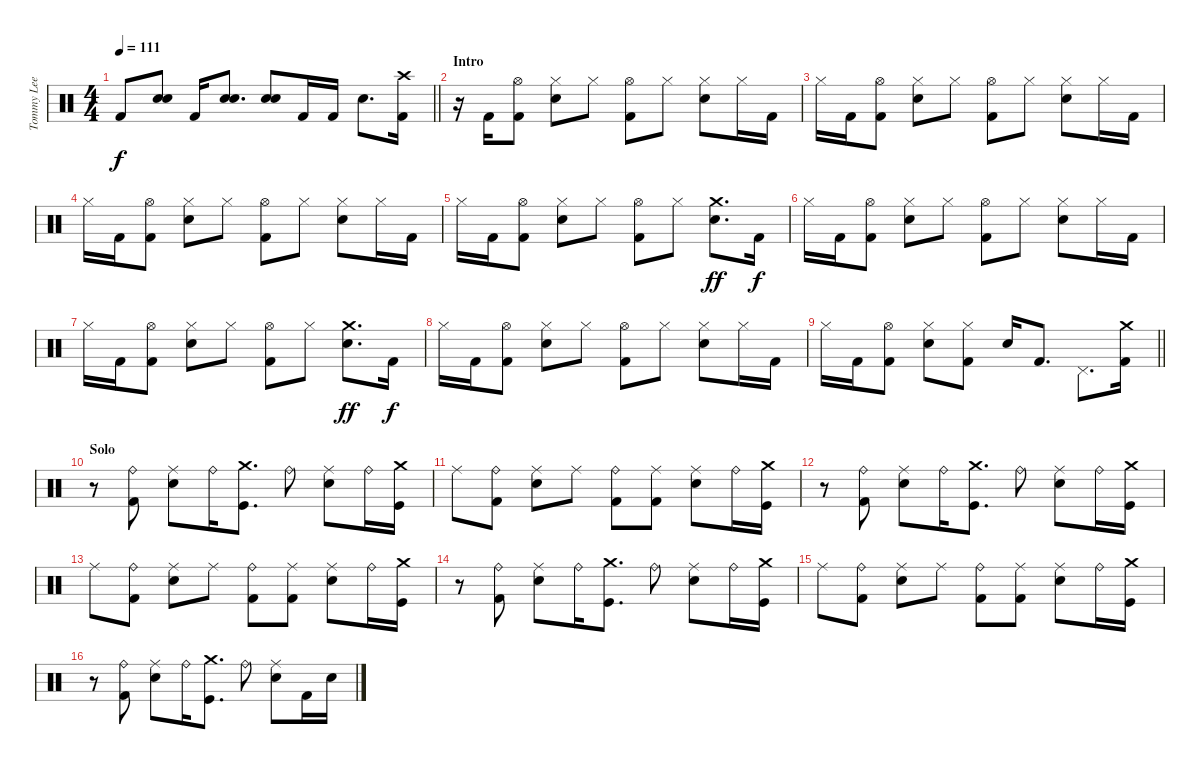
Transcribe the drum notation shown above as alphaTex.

\track ("Tommy Lee" "Tommy Lee") {instrument percussion}
\staff {score}
\articulation defaults
\ts (4 4)
\tempo 111
\clef neutral
\barLineRight lightlight
\ks c "Kick (hit) 2".8{dy f}
("Snare (hit) 2" "Snare (hit) 2").8 "Kick (hit) 2".16 ("Snare (hit) 2" "Snare (hit) 2").8{d} ("Snare (hit) 2" "Snare (hit) 2").8 "Kick (hit) 2".16 "Kick (hit) 2".16 "Snare (hit) 2".8{d} ("Crash high (hit)" "Kick (hit) 2").16 |
\section ("" "Intro")
r.16 "Kick (hit) 2".16 ("Hi-Hat (open)" "Kick (hit) 2").8 ("Hi-Hat (closed)" "Snare (hit) 2").8 "Hi-Hat (closed)".8 ("Hi-Hat (open)" "Kick (hit) 2").8 "Hi-Hat (closed)".8 ("Hi-Hat (closed)" "Snare (hit) 2").8 "Hi-Hat (closed)".16 "Kick (hit) 2".16 |
"Hi-Hat (closed)".16 "Kick (hit) 2".16 ("Hi-Hat (open)" "Kick (hit) 2").8 ("Hi-Hat (closed)" "Snare (hit) 2").8 "Hi-Hat (closed)".8 ("Hi-Hat (open)" "Kick (hit) 2").8 "Hi-Hat (closed)".8 ("Hi-Hat (closed)" "Snare (hit) 2").8 "Hi-Hat (closed)".16 "Kick (hit) 2".16 |
"Hi-Hat (closed)".16 "Kick (hit) 2".16 ("Hi-Hat (open)" "Kick (hit) 2").8 ("Hi-Hat (closed)" "Snare (hit) 2").8 "Hi-Hat (closed)".8 ("Hi-Hat (open)" "Kick (hit) 2").8 "Hi-Hat (closed)".8 ("Hi-Hat (closed)" "Snare (hit) 2").8 "Hi-Hat (closed)".16 "Kick (hit) 2".16 |
"Hi-Hat (closed)".16 "Kick (hit) 2".16 ("Hi-Hat (open)" "Kick (hit) 2").8 ("Hi-Hat (closed)" "Snare (hit) 2").8 "Hi-Hat (closed)".8 ("Hi-Hat (open)" "Kick (hit) 2").8 "Hi-Hat (closed)".8 ("Crash medium (hit)" "Snare (hit) 2").8{d dy ff} "Kick (hit) 2".16{dy f} |
"Hi-Hat (closed)".16 "Kick (hit) 2".16 ("Hi-Hat (open)" "Kick (hit) 2").8 ("Hi-Hat (closed)" "Snare (hit) 2").8 "Hi-Hat (closed)".8 ("Hi-Hat (open)" "Kick (hit) 2").8 "Hi-Hat (closed)".8 ("Hi-Hat (closed)" "Snare (hit) 2").8 "Hi-Hat (closed)".16 "Kick (hit) 2".16 |
"Hi-Hat (closed)".16 "Kick (hit) 2".16 ("Hi-Hat (open)" "Kick (hit) 2").8 ("Hi-Hat (closed)" "Snare (hit) 2").8 "Hi-Hat (closed)".8 ("Hi-Hat (open)" "Kick (hit) 2").8 "Hi-Hat (closed)".8 ("Crash medium (hit)" "Snare (hit) 2").8{d dy ff} "Kick (hit) 2".16{dy f} |
"Hi-Hat (closed)".16 "Kick (hit) 2".16 ("Hi-Hat (open)" "Kick (hit) 2").8 ("Hi-Hat (closed)" "Snare (hit) 2").8 "Hi-Hat (closed)".8 ("Hi-Hat (open)" "Kick (hit) 2").8 "Hi-Hat (closed)".8 ("Hi-Hat (closed)" "Snare (hit) 2").8 "Hi-Hat (closed)".16 "Kick (hit) 2".16 |
\barLineRight lightlight "Hi-Hat (closed)".16 "Kick (hit) 2".16
("Hi-Hat (open)" "Kick (hit) 2").8 ("Hi-Hat (closed)" "Snare (hit) 2").8 ("Hi-Hat (closed)" "Kick (hit) 2").8 "Snare (hit) 2".16 "Kick (hit) 2".8{d} "Pedal Hi-Hat (hit)".8{d} ("Crash medium (hit)" "Kick (hit) 2").16 |
\section ("" "Solo")
r.8 ("Ride (bell)" "Kick (hit) 2").8 ("Ride (middle)" "Snare (hit) 2").8 "Ride (bell)".16 ("Crash medium (hit)" "Kick (hit)").8{d} "Ride (bell)".8 ("Ride (middle)" "Snare (hit) 2").8 "Ride (bell)".16 ("Crash medium (hit)" "Kick (hit)").16 |
"Ride (middle)".8 ("Ride (bell)" "Kick (hit) 2").8 ("Ride (middle)" "Snare (hit) 2").8 "Ride (middle)".8 ("Ride (bell)" "Kick (hit) 2").8 ("Ride (middle)" "Kick (hit) 2").8 ("Ride (middle)" "Snare (hit) 2").8 "Ride (bell)".16 ("Crash medium (hit)" "Kick (hit)").16 |
r.8 ("Ride (bell)" "Kick (hit) 2").8 ("Ride (middle)" "Snare (hit) 2").8 "Ride (bell)".16 ("Crash medium (hit)" "Kick (hit)").8{d} "Ride (bell)".8 ("Ride (middle)" "Snare (hit) 2").8 "Ride (bell)".16 ("Crash medium (hit)" "Kick (hit)").16 |
"Ride (middle)".8 ("Ride (bell)" "Kick (hit) 2").8 ("Ride (middle)" "Snare (hit) 2").8 "Ride (middle)".8 ("Ride (bell)" "Kick (hit) 2").8 ("Ride (middle)" "Kick (hit) 2").8 ("Ride (middle)" "Snare (hit) 2").8 "Ride (bell)".16 ("Crash medium (hit)" "Kick (hit)").16 |
r.8 ("Ride (bell)" "Kick (hit) 2").8 ("Ride (middle)" "Snare (hit) 2").8 "Ride (bell)".16 ("Crash medium (hit)" "Kick (hit)").8{d} "Ride (bell)".8 ("Ride (middle)" "Snare (hit) 2").8 "Ride (bell)".16 ("Crash medium (hit)" "Kick (hit)").16 |
"Ride (middle)".8 ("Ride (bell)" "Kick (hit) 2").8 ("Ride (middle)" "Snare (hit) 2").8 "Ride (middle)".8 ("Ride (bell)" "Kick (hit) 2").8 ("Ride (middle)" "Kick (hit) 2").8 ("Ride (middle)" "Snare (hit) 2").8 "Ride (bell)".16 ("Crash medium (hit)" "Kick (hit)").16 |
r.8 ("Ride (bell)" "Kick (hit) 2").8 ("Ride (middle)" "Snare (hit) 2").8 "Ride (bell)".16 ("Crash medium (hit)" "Kick (hit)").8{d} "Ride (bell)".8 ("Ride (middle)" "Snare (hit) 2").8 "Kick (hit) 2".16 "Snare (hit) 2".16
